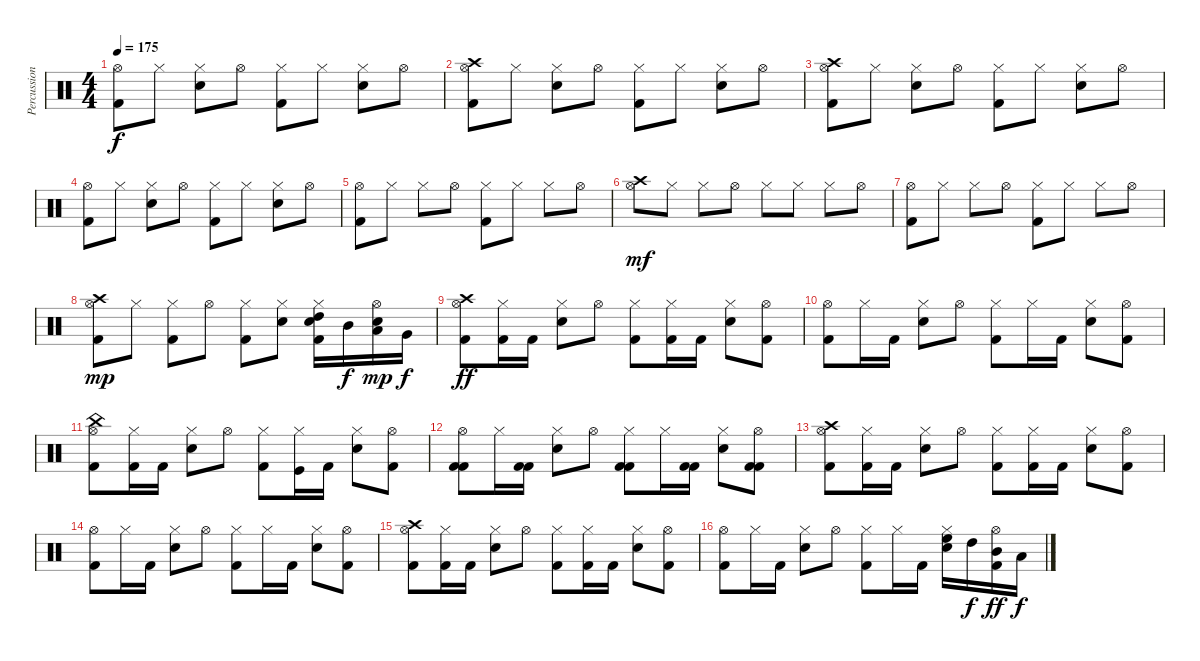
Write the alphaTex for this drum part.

\track ("Percussion" "Percussion") {instrument percussion}
\staff {score}
\articulation defaults
\ts (4 4)
\tempo 175
\clef neutral
\ks c
("Kick (hit) 2" "Hi-Hat (open)").8{dy f} "Hi-Hat (closed)".8 ("Snare (hit) 2" "Hi-Hat (closed)").8 "Hi-Hat (open)".8 ("Kick (hit) 2" "Hi-Hat (closed)").8 "Hi-Hat (closed)".8 ("Snare (hit) 2" "Hi-Hat (closed)").8 "Hi-Hat (open)".8 |
("Kick (hit) 2" "Hi-Hat (open)" "Crash high (hit)").8 "Hi-Hat (closed)".8 ("Snare (hit) 2" "Hi-Hat (closed)").8 "Hi-Hat (open)".8 ("Kick (hit) 2" "Hi-Hat (closed)").8 "Hi-Hat (closed)".8 ("Snare (hit) 2" "Hi-Hat (closed)").8 "Hi-Hat (open)".8 |
("Kick (hit) 2" "Hi-Hat (open)" "Crash high (hit)").8 "Hi-Hat (closed)".8 ("Snare (hit) 2" "Hi-Hat (closed)").8 "Hi-Hat (open)".8 ("Kick (hit) 2" "Hi-Hat (closed)").8 "Hi-Hat (closed)".8 ("Snare (hit) 2" "Hi-Hat (closed)").8 "Hi-Hat (open)".8 |
("Kick (hit) 2" "Hi-Hat (open)").8 "Hi-Hat (closed)".8 ("Snare (hit) 2" "Hi-Hat (closed)").8 "Hi-Hat (open)".8 ("Kick (hit) 2" "Hi-Hat (closed)").8 "Hi-Hat (closed)".8 ("Snare (hit) 2" "Hi-Hat (closed)").8 "Hi-Hat (open)".8 |
("Kick (hit) 2" "Hi-Hat (open)").8 "Hi-Hat (closed)".8 "Hi-Hat (closed)".8 "Hi-Hat (open)".8 ("Kick (hit) 2" "Hi-Hat (closed)").8 "Hi-Hat (closed)".8 "Hi-Hat (closed)".8 "Hi-Hat (open)".8 |
("Hi-Hat (open)" "Crash high (hit)").8{dy mf} "Hi-Hat (closed)".8 "Hi-Hat (closed)".8 "Hi-Hat (open)".8 "Hi-Hat (closed)".8 "Hi-Hat (closed)".8 "Hi-Hat (closed)".8 "Hi-Hat (open)".8 |
("Kick (hit) 2" "Hi-Hat (open)").8 "Hi-Hat (closed)".8 "Hi-Hat (closed)".8 "Hi-Hat (open)".8 ("Kick (hit) 2" "Hi-Hat (closed)").8 "Hi-Hat (closed)".8 "Hi-Hat (closed)".8 "Hi-Hat (open)".8 |
("Hi-Hat (open)" "Crash high (hit)" "Kick (hit) 2").8{dy mp} "Hi-Hat (closed)".8 ("Hi-Hat (closed)" "Kick (hit) 2").8 "Hi-Hat (open)".8 ("Hi-Hat (closed)" "Kick (hit) 2").8 ("Hi-Hat (closed)" "Snare (hit) 2").8 ("Hi-Hat (closed)" "Kick (hit) 2" "Electric Snare (hit)" "High Tom (hit)").16 "Mid Tom (hit)".16{dy f} ("Hi-Hat (open)" "Snare (hit) 2" "Low Tom (hit)").16{dy mp} "Very Low Tom (hit)".16{dy f} |
("Hi-Hat (open)" "Kick (hit) 2" "Crash high (hit)").8{dy ff} ("Hi-Hat (closed)" "Kick (hit) 2").16 "Kick (hit) 2".16 ("Hi-Hat (closed)" "Electric Snare (hit)").8 "Hi-Hat (open)".8 ("Hi-Hat (closed)" "Kick (hit) 2").8 ("Hi-Hat (closed)" "Kick (hit) 2").16 "Kick (hit) 2".16 ("Hi-Hat (closed)" "Electric Snare (hit)").8 ("Hi-Hat (open)" "Kick (hit) 2").8 |
("Hi-Hat (open)" "Kick (hit) 2").8 "Hi-Hat (closed)".16 "Kick (hit) 2".16 ("Hi-Hat (closed)" "Electric Snare (hit)").8 "Hi-Hat (open)".8 ("Hi-Hat (closed)" "Kick (hit) 2").8 "Hi-Hat (closed)".16 "Kick (hit) 2".16 ("Hi-Hat (closed)" "Electric Snare (hit)").8 ("Hi-Hat (open)" "Kick (hit) 2").8 |
("Hi-Hat (open)" "Kick (hit) 2" "China (hit)").8 ("Hi-Hat (closed)" "Kick (hit) 2").16 "Kick (hit) 2".16 ("Hi-Hat (closed)" "Electric Snare (hit)").8 "Hi-Hat (open)".8 ("Hi-Hat (closed)" "Kick (hit) 2").8 ("Hi-Hat (closed)" "Kick (hit)").16 "Kick (hit) 2".16 ("Hi-Hat (closed)" "Electric Snare (hit)").8 ("Hi-Hat (open)" "Kick (hit) 2").8 |
("Hi-Hat (open)" "Kick (hit) 2" "Kick (hit) 2").8 "Hi-Hat (closed)".16 ("Kick (hit) 2" "Kick (hit) 2").16 ("Hi-Hat (closed)" "Electric Snare (hit)").8 "Hi-Hat (open)".8 ("Hi-Hat (closed)" "Kick (hit) 2" "Kick (hit) 2").8 "Hi-Hat (closed)".16 ("Kick (hit) 2" "Kick (hit) 2").16 ("Hi-Hat (closed)" "Electric Snare (hit)").8 ("Hi-Hat (open)" "Kick (hit) 2" "Kick (hit) 2").8 |
("Hi-Hat (open)" "Kick (hit) 2" "Crash high (hit)").8 ("Hi-Hat (closed)" "Kick (hit) 2").16 "Kick (hit) 2".16 ("Hi-Hat (closed)" "Electric Snare (hit)").8 "Hi-Hat (open)".8 ("Hi-Hat (closed)" "Kick (hit) 2").8 ("Hi-Hat (closed)" "Kick (hit) 2").16 "Kick (hit) 2".16 ("Hi-Hat (closed)" "Electric Snare (hit)").8 ("Hi-Hat (open)" "Kick (hit) 2").8 |
("Hi-Hat (open)" "Kick (hit) 2").8 "Hi-Hat (closed)".16 "Kick (hit) 2".16 ("Hi-Hat (closed)" "Electric Snare (hit)").8 "Hi-Hat (open)".8 ("Hi-Hat (closed)" "Kick (hit) 2").8 "Hi-Hat (closed)".16 "Kick (hit) 2".16 ("Hi-Hat (closed)" "Electric Snare (hit)").8 ("Hi-Hat (open)" "Kick (hit) 2").8 |
("Hi-Hat (open)" "Kick (hit) 2" "Crash high (hit)").8 ("Hi-Hat (closed)" "Kick (hit) 2").16 "Kick (hit) 2".16 ("Hi-Hat (closed)" "Electric Snare (hit)").8 "Hi-Hat (open)".8 ("Hi-Hat (closed)" "Kick (hit) 2").8 ("Hi-Hat (closed)" "Kick (hit) 2").16 "Kick (hit) 2".16 ("Hi-Hat (closed)" "Electric Snare (hit)").8 ("Hi-Hat (open)" "Kick (hit) 2").8 |
("Hi-Hat (open)" "Kick (hit) 2").8 "Hi-Hat (closed)".16 "Kick (hit) 2".16 ("Hi-Hat (closed)" "Electric Snare (hit)").8 "Hi-Hat (open)".8 ("Hi-Hat (closed)" "Kick (hit) 2").8 "Hi-Hat (closed)".16 "Kick (hit) 2".16 ("Hi-Hat (closed)" "Electric Snare (hit)" "High Floor Tom (hit)").16 "High Tom (hit)".16{dy f} ("Hi-Hat (open)" "Kick (hit) 2" "Mid Tom (hit)").16{dy ff} "Low Tom (hit)".16{dy f}
